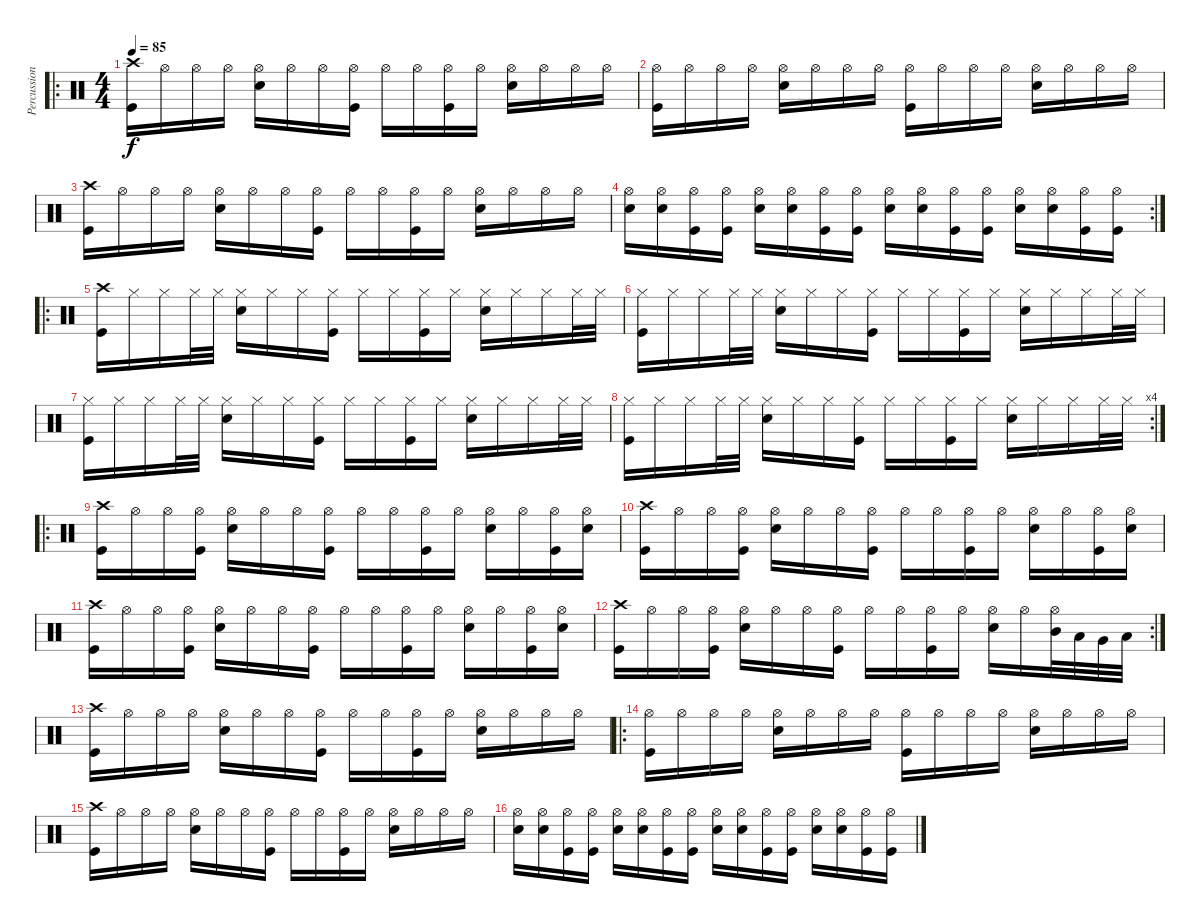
\track ("Percussion" "Percussion") {instrument percussion}
\staff {score}
\articulation defaults
\ro
\ts (4 4)
\tempo 85
\clef neutral
\ks c
("Crash high (hit)" "Kick (hit)").16{dy f} "Hi-Hat (open)".16 "Hi-Hat (open)".16 "Hi-Hat (open)".16 ("Hi-Hat (open)" "Snare (hit) 2").16 "Hi-Hat (open)".16 "Hi-Hat (open)".16 ("Hi-Hat (open)" "Kick (hit)").16 "Hi-Hat (open)".16 "Hi-Hat (open)".16 ("Hi-Hat (open)" "Kick (hit)").16 "Hi-Hat (open)".16 ("Hi-Hat (open)" "Snare (hit) 2").16 "Hi-Hat (open)".16 "Hi-Hat (open)".16 "Hi-Hat (open)".16 |
("Hi-Hat (open)" "Kick (hit)").16 "Hi-Hat (open)".16 "Hi-Hat (open)".16 "Hi-Hat (open)".16 ("Hi-Hat (open)" "Snare (hit) 2").16 "Hi-Hat (open)".16 "Hi-Hat (open)".16 "Hi-Hat (open)".16 ("Hi-Hat (open)" "Kick (hit)").16 "Hi-Hat (open)".16 "Hi-Hat (open)".16 "Hi-Hat (open)".16 ("Hi-Hat (open)" "Snare (hit) 2").16 "Hi-Hat (open)".16 "Hi-Hat (open)".16 "Hi-Hat (open)".16 |
("Crash high (hit)" "Kick (hit)").16 "Hi-Hat (open)".16 "Hi-Hat (open)".16 "Hi-Hat (open)".16 ("Hi-Hat (open)" "Snare (hit) 2").16 "Hi-Hat (open)".16 "Hi-Hat (open)".16 ("Hi-Hat (open)" "Kick (hit)").16 "Hi-Hat (open)".16 "Hi-Hat (open)".16 ("Hi-Hat (open)" "Kick (hit)").16 "Hi-Hat (open)".16 ("Hi-Hat (open)" "Snare (hit) 2").16 "Hi-Hat (open)".16 "Hi-Hat (open)".16 "Hi-Hat (open)".16 |
\rc 2
("Hi-Hat (open)" "Snare (hit) 2").16 ("Hi-Hat (open)" "Snare (hit) 2").16 ("Hi-Hat (open)" "Kick (hit)").16 ("Hi-Hat (open)" "Kick (hit)").16 ("Hi-Hat (open)" "Snare (hit) 2").16 ("Hi-Hat (open)" "Snare (hit) 2").16 ("Hi-Hat (open)" "Kick (hit)").16 ("Hi-Hat (open)" "Kick (hit)").16 ("Hi-Hat (open)" "Snare (hit) 2").16 ("Hi-Hat (open)" "Snare (hit) 2").16 ("Hi-Hat (open)" "Kick (hit)").16 ("Hi-Hat (open)" "Kick (hit)").16 ("Hi-Hat (open)" "Snare (hit) 2").16 ("Hi-Hat (open)" "Snare (hit) 2").16 ("Hi-Hat (open)" "Kick (hit)").16 ("Hi-Hat (open)" "Kick (hit)").16 |
\ro
("Crash high (hit)" "Kick (hit)").16 "Hi-Hat (closed)".16 "Hi-Hat (closed)".16 "Hi-Hat (closed)".32 "Hi-Hat (closed)".32 ("Hi-Hat (closed)" "Snare (hit) 2").16 "Hi-Hat (closed)".16 "Hi-Hat (closed)".16 ("Hi-Hat (closed)" "Kick (hit)").16 "Hi-Hat (closed)".16 "Hi-Hat (closed)".16 ("Hi-Hat (closed)" "Kick (hit)").16 "Hi-Hat (closed)".16 ("Hi-Hat (closed)" "Snare (hit) 2").16 "Hi-Hat (closed)".16 "Hi-Hat (closed)".16 "Hi-Hat (closed)".32 "Hi-Hat (closed)".32 |
("Hi-Hat (closed)" "Kick (hit)").16 "Hi-Hat (closed)".16 "Hi-Hat (closed)".16 "Hi-Hat (closed)".32 "Hi-Hat (closed)".32 ("Hi-Hat (closed)" "Snare (hit) 2").16 "Hi-Hat (closed)".16 "Hi-Hat (closed)".16 ("Hi-Hat (closed)" "Kick (hit)").16 "Hi-Hat (closed)".16 "Hi-Hat (closed)".16 ("Hi-Hat (closed)" "Kick (hit)").16 "Hi-Hat (closed)".16 ("Hi-Hat (closed)" "Snare (hit) 2").16 "Hi-Hat (closed)".16 "Hi-Hat (closed)".16 "Hi-Hat (closed)".32 "Hi-Hat (closed)".32 |
("Hi-Hat (closed)" "Kick (hit)").16 "Hi-Hat (closed)".16 "Hi-Hat (closed)".16 "Hi-Hat (closed)".32 "Hi-Hat (closed)".32 ("Hi-Hat (closed)" "Snare (hit) 2").16 "Hi-Hat (closed)".16 "Hi-Hat (closed)".16 ("Hi-Hat (closed)" "Kick (hit)").16 "Hi-Hat (closed)".16 "Hi-Hat (closed)".16 ("Hi-Hat (closed)" "Kick (hit)").16 "Hi-Hat (closed)".16 ("Hi-Hat (closed)" "Snare (hit) 2").16 "Hi-Hat (closed)".16 "Hi-Hat (closed)".16 "Hi-Hat (closed)".32 "Hi-Hat (closed)".32 |
\rc 4
("Hi-Hat (closed)" "Kick (hit)").16 "Hi-Hat (closed)".16 "Hi-Hat (closed)".16 "Hi-Hat (closed)".32 "Hi-Hat (closed)".32 ("Hi-Hat (closed)" "Snare (hit) 2").16 "Hi-Hat (closed)".16 "Hi-Hat (closed)".16 ("Hi-Hat (closed)" "Kick (hit)").16 "Hi-Hat (closed)".16 "Hi-Hat (closed)".16 ("Hi-Hat (closed)" "Kick (hit)").16 "Hi-Hat (closed)".16 ("Hi-Hat (closed)" "Snare (hit) 2").16 "Hi-Hat (closed)".16 "Hi-Hat (closed)".16 "Hi-Hat (closed)".32 "Hi-Hat (closed)".32 |
\ro
("Crash high (hit)" "Kick (hit)").16 "Hi-Hat (open)".16 "Hi-Hat (open)".16 ("Hi-Hat (open)" "Kick (hit)").16 ("Hi-Hat (open)" "Snare (hit) 2").16 "Hi-Hat (open)".16 "Hi-Hat (open)".16 ("Hi-Hat (open)" "Kick (hit)").16 "Hi-Hat (open)".16 "Hi-Hat (open)".16 ("Hi-Hat (open)" "Kick (hit)").16 "Hi-Hat (open)".16 ("Hi-Hat (open)" "Snare (hit) 2").16 "Hi-Hat (open)".16 ("Hi-Hat (open)" "Kick (hit)").16 ("Hi-Hat (open)" "Snare (hit) 2").16 |
("Crash high (hit)" "Kick (hit)").16 "Hi-Hat (open)".16 "Hi-Hat (open)".16 ("Hi-Hat (open)" "Kick (hit)").16 ("Hi-Hat (open)" "Snare (hit) 2").16 "Hi-Hat (open)".16 "Hi-Hat (open)".16 ("Hi-Hat (open)" "Kick (hit)").16 "Hi-Hat (open)".16 "Hi-Hat (open)".16 ("Hi-Hat (open)" "Kick (hit)").16 "Hi-Hat (open)".16 ("Hi-Hat (open)" "Snare (hit) 2").16 "Hi-Hat (open)".16 ("Hi-Hat (open)" "Kick (hit)").16 ("Hi-Hat (open)" "Snare (hit) 2").16 |
("Crash high (hit)" "Kick (hit)").16 "Hi-Hat (open)".16 "Hi-Hat (open)".16 ("Hi-Hat (open)" "Kick (hit)").16 ("Hi-Hat (open)" "Snare (hit) 2").16 "Hi-Hat (open)".16 "Hi-Hat (open)".16 ("Hi-Hat (open)" "Kick (hit)").16 "Hi-Hat (open)".16 "Hi-Hat (open)".16 ("Hi-Hat (open)" "Kick (hit)").16 "Hi-Hat (open)".16 ("Hi-Hat (open)" "Snare (hit) 2").16 "Hi-Hat (open)".16 ("Hi-Hat (open)" "Kick (hit)").16 ("Hi-Hat (open)" "Snare (hit) 2").16 |
\rc 2
("Crash high (hit)" "Kick (hit)").16 "Hi-Hat (open)".16 "Hi-Hat (open)".16 ("Hi-Hat (open)" "Kick (hit)").16 ("Hi-Hat (open)" "Snare (hit) 2").16 "Hi-Hat (open)".16 "Hi-Hat (open)".16 ("Hi-Hat (open)" "Kick (hit)").16 "Hi-Hat (open)".16 "Hi-Hat (open)".16 ("Hi-Hat (open)" "Kick (hit)").16 "Hi-Hat (open)".16 ("Hi-Hat (open)" "Snare (hit) 2").16 "Hi-Hat (open)".16 ("Hi-Hat (open)" "Mid Tom (hit)").32 "Low Tom (hit)".32 "Very Low Tom (hit)".32 "Low Floor Tom (hit)".32 |
("Crash high (hit)" "Kick (hit)").16 "Hi-Hat (open)".16 "Hi-Hat (open)".16 "Hi-Hat (open)".16 ("Hi-Hat (open)" "Snare (hit) 2").16 "Hi-Hat (open)".16 "Hi-Hat (open)".16 ("Hi-Hat (open)" "Kick (hit)").16 "Hi-Hat (open)".16 "Hi-Hat (open)".16 ("Hi-Hat (open)" "Kick (hit)").16 "Hi-Hat (open)".16 ("Hi-Hat (open)" "Snare (hit) 2").16 "Hi-Hat (open)".16 "Hi-Hat (open)".16 "Hi-Hat (open)".16 |
\ro
("Hi-Hat (open)" "Kick (hit)").16 "Hi-Hat (open)".16 "Hi-Hat (open)".16 "Hi-Hat (open)".16 ("Hi-Hat (open)" "Snare (hit) 2").16 "Hi-Hat (open)".16 "Hi-Hat (open)".16 "Hi-Hat (open)".16 ("Hi-Hat (open)" "Kick (hit)").16 "Hi-Hat (open)".16 "Hi-Hat (open)".16 "Hi-Hat (open)".16 ("Hi-Hat (open)" "Snare (hit) 2").16 "Hi-Hat (open)".16 "Hi-Hat (open)".16 "Hi-Hat (open)".16 |
("Crash high (hit)" "Kick (hit)").16 "Hi-Hat (open)".16 "Hi-Hat (open)".16 "Hi-Hat (open)".16 ("Hi-Hat (open)" "Snare (hit) 2").16 "Hi-Hat (open)".16 "Hi-Hat (open)".16 ("Hi-Hat (open)" "Kick (hit)").16 "Hi-Hat (open)".16 "Hi-Hat (open)".16 ("Hi-Hat (open)" "Kick (hit)").16 "Hi-Hat (open)".16 ("Hi-Hat (open)" "Snare (hit) 2").16 "Hi-Hat (open)".16 "Hi-Hat (open)".16 "Hi-Hat (open)".16 |
("Hi-Hat (open)" "Snare (hit) 2").16 ("Hi-Hat (open)" "Snare (hit) 2").16 ("Hi-Hat (open)" "Kick (hit)").16 ("Hi-Hat (open)" "Kick (hit)").16 ("Hi-Hat (open)" "Snare (hit) 2").16 ("Hi-Hat (open)" "Snare (hit) 2").16 ("Hi-Hat (open)" "Kick (hit)").16 ("Hi-Hat (open)" "Kick (hit)").16 ("Hi-Hat (open)" "Snare (hit) 2").16 ("Hi-Hat (open)" "Snare (hit) 2").16 ("Hi-Hat (open)" "Kick (hit)").16 ("Hi-Hat (open)" "Kick (hit)").16 ("Hi-Hat (open)" "Snare (hit) 2").16 ("Hi-Hat (open)" "Snare (hit) 2").16 ("Hi-Hat (open)" "Kick (hit)").16 ("Hi-Hat (open)" "Kick (hit)").16
